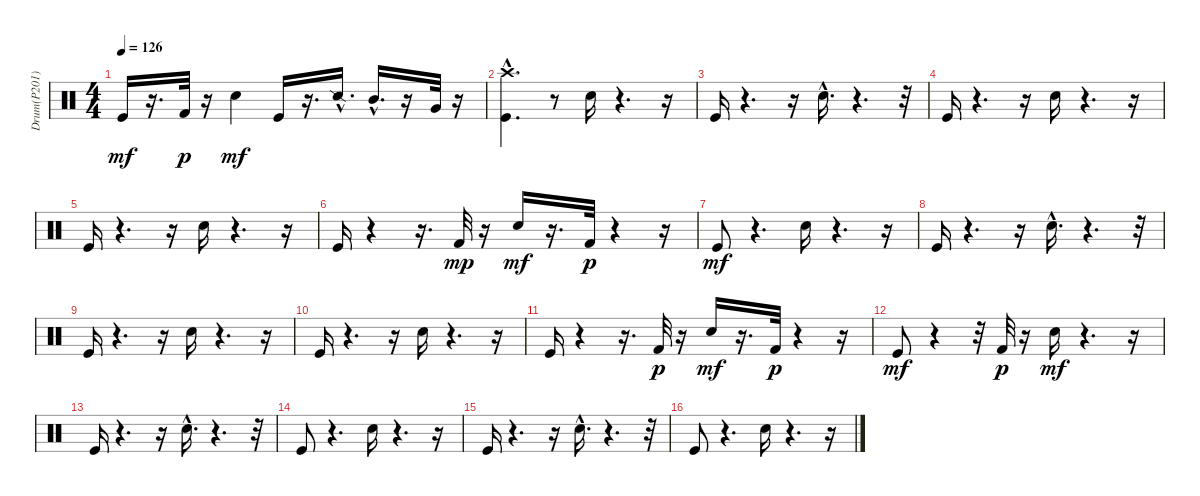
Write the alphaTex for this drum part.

\track ("Drum(P201)" "Drum(P201)") {instrument percussion}
\staff {score}
\articulation defaults
\ts (4 4)
\tempo 126
\clef neutral
\ks c "Kick (hit)".16{dy mf}
r.16{d} "Kick (hit) 2".32{dy p} r.16 "Snare (hit) 2".4{dy mf} "Kick (hit)".16 r.16{d} "Snare (side stick) 2"{hac}.16{d} "Mid Tom (hit)"{hac}.16{d} r.16 "Very Low Tom (hit)".32 r.16 |
("Crash high (hit)"{hac} "Kick (hit)").4{d} r.8 "Electric Snare (hit)".16 r.4{d} r.16 |
"Kick (hit)".16 r.4{d} r.16 "Electric Snare (hit)"{hac}.16{d} r.4{d} r.32 |
"Kick (hit)".16 r.4{d} r.16 "Electric Snare (hit)".16 r.4{d} r.16 |
"Kick (hit)".16 r.4{d} r.16 "Electric Snare (hit)".16 r.4{d} r.16 |
"Kick (hit)".16 r.4 r.16{d} "Kick (hit) 2".32{dy mp} r.16 "Electric Snare (hit)".16{dy mf} r.16{d} "Kick (hit) 2".32{dy p} r.4 r.16 |
"Kick (hit)".8{dy mf} r.4{d} "Electric Snare (hit)".16 r.4{d} r.16 |
"Kick (hit)".16 r.4{d} r.16 "Electric Snare (hit)"{hac}.16{d} r.4{d} r.32 |
"Kick (hit)".16 r.4{d} r.16 "Electric Snare (hit)".16 r.4{d} r.16 |
"Kick (hit)".16 r.4{d} r.16 "Electric Snare (hit)".16 r.4{d} r.16 |
"Kick (hit)".16 r.4 r.16{d} "Kick (hit) 2".32{dy p} r.16 "Electric Snare (hit)".16{dy mf} r.16{d} "Kick (hit) 2".32{dy p} r.4 r.16 |
"Kick (hit)".8{dy mf} r.4 r.32 "Kick (hit) 2".32{dy p} r.16 "Electric Snare (hit)".16{dy mf} r.4{d} r.16 |
"Kick (hit)".16 r.4{d} r.16 "Electric Snare (hit)"{hac}.16{d} r.4{d} r.32 |
"Kick (hit)".8 r.4{d} "Electric Snare (hit)".16 r.4{d} r.16 |
"Kick (hit)".16 r.4{d} r.16 "Electric Snare (hit)"{hac}.16{d} r.4{d} r.32 |
"Kick (hit)".8 r.4{d} "Electric Snare (hit)".16 r.4{d} r.16
